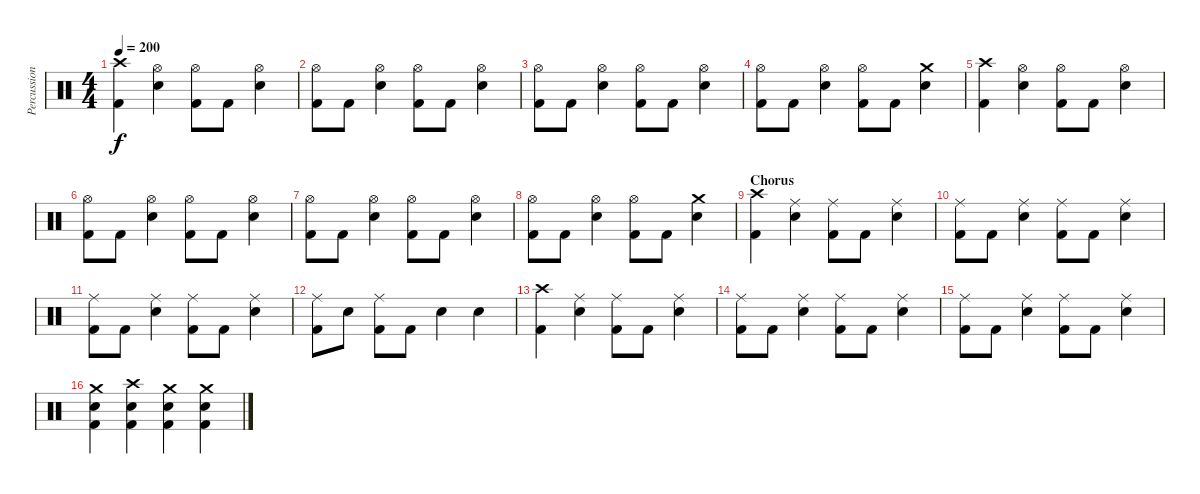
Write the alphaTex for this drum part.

\track ("Percussion" "Percussion") {instrument percussion}
\staff {score}
\articulation defaults
\ts (4 4)
\tempo 200
\clef neutral
\ks c
("Crash high (hit)" "Kick (hit) 2").4{dy f} ("Hi-Hat (open)" "Snare (hit) 2").4 ("Hi-Hat (open)" "Kick (hit) 2").8 "Kick (hit) 2".8 ("Hi-Hat (open)" "Snare (hit) 2").4 |
("Hi-Hat (open)" "Kick (hit) 2").8 "Kick (hit) 2".8 ("Hi-Hat (open)" "Snare (hit) 2").4 ("Hi-Hat (open)" "Kick (hit) 2").8 "Kick (hit) 2".8 ("Hi-Hat (open)" "Snare (hit) 2").4 |
("Hi-Hat (open)" "Kick (hit) 2").8 "Kick (hit) 2".8 ("Hi-Hat (open)" "Snare (hit) 2").4 ("Hi-Hat (open)" "Kick (hit) 2").8 "Kick (hit) 2".8 ("Hi-Hat (open)" "Snare (hit) 2").4 |
("Hi-Hat (open)" "Kick (hit) 2").8 "Kick (hit) 2".8 ("Hi-Hat (open)" "Snare (hit) 2").4 ("Hi-Hat (open)" "Kick (hit) 2").8 "Kick (hit) 2".8 ("Crash medium (hit)" "Snare (hit) 2").4 |
("Crash high (hit)" "Kick (hit) 2").4 ("Hi-Hat (open)" "Snare (hit) 2").4 ("Hi-Hat (open)" "Kick (hit) 2").8 "Kick (hit) 2".8 ("Hi-Hat (open)" "Snare (hit) 2").4 |
("Hi-Hat (open)" "Kick (hit) 2").8 "Kick (hit) 2".8 ("Hi-Hat (open)" "Snare (hit) 2").4 ("Hi-Hat (open)" "Kick (hit) 2").8 "Kick (hit) 2".8 ("Hi-Hat (open)" "Snare (hit) 2").4 |
("Hi-Hat (open)" "Kick (hit) 2").8 "Kick (hit) 2".8 ("Hi-Hat (open)" "Snare (hit) 2").4 ("Hi-Hat (open)" "Kick (hit) 2").8 "Kick (hit) 2".8 ("Hi-Hat (open)" "Snare (hit) 2").4 |
("Hi-Hat (open)" "Kick (hit) 2").8 "Kick (hit) 2".8 ("Hi-Hat (open)" "Snare (hit) 2").4 ("Hi-Hat (open)" "Kick (hit) 2").8 "Kick (hit) 2".8 ("Crash medium (hit)" "Snare (hit) 2").4 |
\section ("" "Chorus")
("Crash high (hit)" "Kick (hit) 2").4 ("Ride (middle)" "Snare (hit) 2").4 ("Ride (middle)" "Kick (hit) 2").8 "Kick (hit) 2".8 ("Ride (middle)" "Snare (hit) 2").4 |
("Ride (middle)" "Kick (hit) 2").8 "Kick (hit) 2".8 ("Ride (middle)" "Snare (hit) 2").4 ("Ride (middle)" "Kick (hit) 2").8 "Kick (hit) 2".8 ("Ride (middle)" "Snare (hit) 2").4 |
("Ride (middle)" "Kick (hit) 2").8 "Kick (hit) 2".8 ("Ride (middle)" "Snare (hit) 2").4 ("Ride (middle)" "Kick (hit) 2").8 "Kick (hit) 2".8 ("Ride (middle)" "Snare (hit) 2").4 |
("Ride (middle)" "Kick (hit) 2").8 "Snare (hit) 2".8 ("Ride (middle)" "Kick (hit) 2").8 "Kick (hit) 2".8 "Snare (hit) 2".4 "Snare (hit) 2".4 |
("Crash high (hit)" "Kick (hit) 2").4 ("Ride (middle)" "Snare (hit) 2").4 ("Ride (middle)" "Kick (hit) 2").8 "Kick (hit) 2".8 ("Ride (middle)" "Snare (hit) 2").4 |
("Ride (middle)" "Kick (hit) 2").8 "Kick (hit) 2".8 ("Ride (middle)" "Snare (hit) 2").4 ("Ride (middle)" "Kick (hit) 2").8 "Kick (hit) 2".8 ("Ride (middle)" "Snare (hit) 2").4 |
("Ride (middle)" "Kick (hit) 2").8 "Kick (hit) 2".8 ("Ride (middle)" "Snare (hit) 2").4 ("Ride (middle)" "Kick (hit) 2").8 "Kick (hit) 2".8 ("Ride (middle)" "Snare (hit) 2").4 |
("Crash medium (hit)" "Snare (hit) 2" "Kick (hit) 2").4 ("Crash high (hit)" "Snare (hit) 2" "Kick (hit) 2").4 ("Crash medium (hit)" "Snare (hit) 2" "Kick (hit) 2").4 ("Crash medium (hit)" "Snare (hit) 2" "Kick (hit) 2").4
